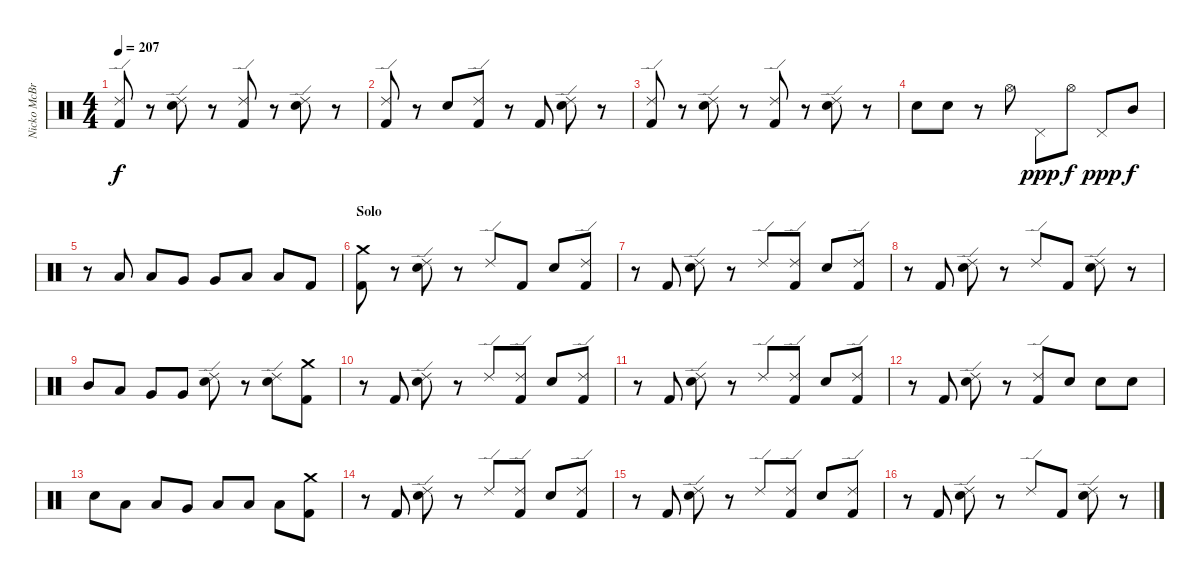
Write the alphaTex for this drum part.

\track ("Nicko McBrain" "Nicko McBr") {instrument percussion}
\staff {score}
\articulation defaults
\ts (4 4)
\tempo 207
\clef neutral
\ks c
("Ride (edge) 2" "Kick (hit) 2").8{dy f} r.8 ("Ride (edge) 2" "Snare (hit) 2").8 r.8 ("Ride (edge) 2" "Kick (hit) 2").8 r.8 ("Ride (edge) 2" "Snare (hit) 2").8 r.8 |
("Ride (edge) 2" "Kick (hit) 2").8 r.8 "Snare (hit) 2".8 ("Ride (edge) 2" "Kick (hit) 2").8 r.8 "Kick (hit) 2".8 ("Ride (edge) 2" "Snare (hit) 2").8 r.8 |
("Ride (edge) 2" "Kick (hit) 2").8 r.8 ("Ride (edge) 2" "Snare (hit) 2").8 r.8 ("Ride (edge) 2" "Kick (hit) 2").8 r.8 ("Ride (edge) 2" "Snare (hit) 2").8 r.8 |
"Snare (hit) 2".8 "Snare (hit) 2".8 r.8 "Hi-Hat (open)".8 "Pedal Hi-Hat (hit)".8{dy ppp} "Hi-Hat (open)".8{dy f} "Pedal Hi-Hat (hit)".8{dy ppp} "Mid Tom (hit)".8{dy f} |
r.8 "Low Tom (hit)".8 "Low Tom (hit)".8 "Very Low Tom (hit)".8 "Very Low Tom (hit)".8 "Low Floor Tom (hit)".8 "Low Floor Tom (hit)".8 "Kick (hit) 2".8 |
\section ("" "Solo")
("Crash medium (hit)" "Kick (hit) 2").8 r.8 ("Ride (edge) 2" "Snare (hit) 2").8 r.8 "Ride (edge) 2".8 "Kick (hit) 2".8 "Snare (hit) 2".8 ("Ride (edge) 2" "Kick (hit) 2").8 |
r.8 "Kick (hit) 2".8 ("Ride (edge) 2" "Snare (hit) 2").8 r.8 "Ride (edge) 2".8 ("Ride (edge) 2" "Kick (hit) 2").8 "Snare (hit) 2".8 ("Ride (edge) 2" "Kick (hit) 2").8 |
r.8 "Kick (hit) 2".8 ("Ride (edge) 2" "Snare (hit) 2").8 r.8 "Ride (edge) 2".8 "Kick (hit) 2".8 ("Ride (edge) 2" "Snare (hit) 2").8 r.8 |
"Mid Tom (hit)".8 "Low Tom (hit)".8 "Very Low Tom (hit)".8 "Very Low Tom (hit)".8 ("Ride (edge) 2" "Snare (hit) 2").8 r.8 ("Ride (edge) 2" "Snare (hit) 2").8 ("Crash medium (hit)" "Kick (hit) 2").8 |
r.8 "Kick (hit) 2".8 ("Ride (edge) 2" "Snare (hit) 2").8 r.8 "Ride (edge) 2".8 ("Ride (edge) 2" "Kick (hit) 2").8 "Snare (hit) 2".8 ("Ride (edge) 2" "Kick (hit) 2").8 |
r.8 "Kick (hit) 2".8 ("Ride (edge) 2" "Snare (hit) 2").8 r.8 "Ride (edge) 2".8 ("Ride (edge) 2" "Kick (hit) 2").8 "Snare (hit) 2".8 ("Ride (edge) 2" "Kick (hit) 2").8 |
r.8 "Kick (hit) 2".8 ("Ride (edge) 2" "Snare (hit) 2").8 r.8 ("Ride (edge) 2" "Kick (hit) 2").8 "Snare (hit) 2".8 "Snare (hit) 2".8 "Snare (hit) 2".8 |
"Snare (hit) 2".8 "Low Tom (hit)".8 "Low Tom (hit)".8 "Very Low Tom (hit)".8 "Low Floor Tom (hit)".8 "Low Floor Tom (hit)".8 "Low Floor Tom (hit)".8 ("Crash medium (hit)" "Kick (hit) 2").8 |
r.8 "Kick (hit) 2".8 ("Ride (edge) 2" "Snare (hit) 2").8 r.8 "Ride (edge) 2".8 ("Ride (edge) 2" "Kick (hit) 2").8 "Snare (hit) 2".8 ("Ride (edge) 2" "Kick (hit) 2").8 |
r.8 "Kick (hit) 2".8 ("Ride (edge) 2" "Snare (hit) 2").8 r.8 "Ride (edge) 2".8 ("Ride (edge) 2" "Kick (hit) 2").8 "Snare (hit) 2".8 ("Ride (edge) 2" "Kick (hit) 2").8 |
r.8 "Kick (hit) 2".8 ("Ride (edge) 2" "Snare (hit) 2").8 r.8 "Ride (edge) 2".8 "Kick (hit) 2".8 ("Ride (edge) 2" "Snare (hit) 2").8 r.8
